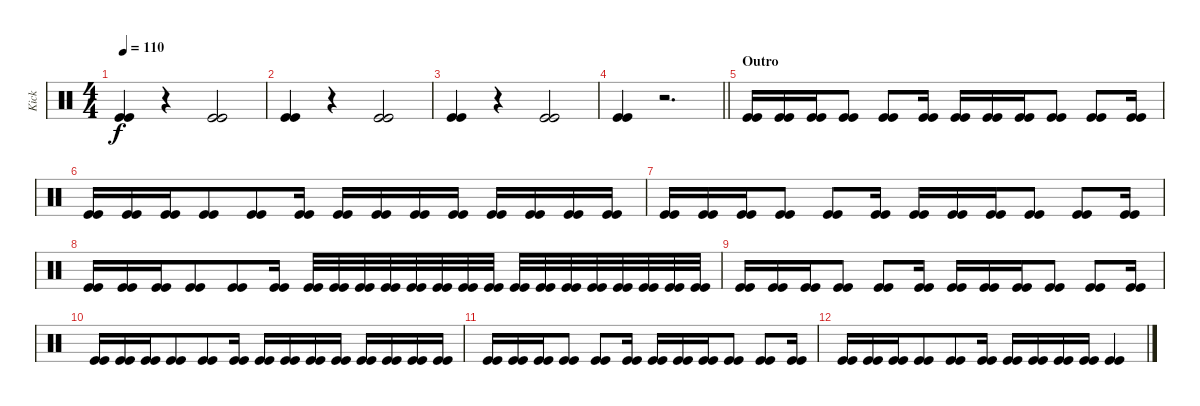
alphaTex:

\track ("Kick" "Kick") {instrument percussion}
\staff {score}
\articulation defaults
\ts (4 4)
\tempo 110
\clef neutral
\ks c
("Kick (hit)" "Kick (hit)").4{dy f} r.4 ("Kick (hit)" "Kick (hit)").2 |
("Kick (hit)" "Kick (hit)").4 r.4 ("Kick (hit)" "Kick (hit)").2 |
("Kick (hit)" "Kick (hit)").4 r.4 ("Kick (hit)" "Kick (hit)").2 |
\barLineRight lightlight
("Kick (hit)" "Kick (hit)").4 r.2{d} |
\section ("" "Outro")
("Kick (hit)" "Kick (hit)").16{beam merge} ("Kick (hit)" "Kick (hit)").16 ("Kick (hit)" "Kick (hit)").16 ("Kick (hit)" "Kick (hit)").8 ("Kick (hit)" "Kick (hit)").8 ("Kick (hit)" "Kick (hit)").16 ("Kick (hit)" "Kick (hit)").16 ("Kick (hit)" "Kick (hit)").16 ("Kick (hit)" "Kick (hit)").16 ("Kick (hit)" "Kick (hit)").8 ("Kick (hit)" "Kick (hit)").8 ("Kick (hit)" "Kick (hit)").16 |
("Kick (hit)" "Kick (hit)").16 ("Kick (hit)" "Kick (hit)").16 ("Kick (hit)" "Kick (hit)").16 ("Kick (hit)" "Kick (hit)").8{beam merge} ("Kick (hit)" "Kick (hit)").8{beam merge} ("Kick (hit)" "Kick (hit)").16 ("Kick (hit)" "Kick (hit)").16 ("Kick (hit)" "Kick (hit)").16 ("Kick (hit)" "Kick (hit)").16 ("Kick (hit)" "Kick (hit)").16 ("Kick (hit)" "Kick (hit)").16 ("Kick (hit)" "Kick (hit)").16 ("Kick (hit)" "Kick (hit)").16{beam merge} ("Kick (hit)" "Kick (hit)").16 |
("Kick (hit)" "Kick (hit)").16{beam merge} ("Kick (hit)" "Kick (hit)").16 ("Kick (hit)" "Kick (hit)").16 ("Kick (hit)" "Kick (hit)").8 ("Kick (hit)" "Kick (hit)").8 ("Kick (hit)" "Kick (hit)").16 ("Kick (hit)" "Kick (hit)").16 ("Kick (hit)" "Kick (hit)").16 ("Kick (hit)" "Kick (hit)").16 ("Kick (hit)" "Kick (hit)").8 ("Kick (hit)" "Kick (hit)").8 ("Kick (hit)" "Kick (hit)").16 |
("Kick (hit)" "Kick (hit)").16 ("Kick (hit)" "Kick (hit)").16 ("Kick (hit)" "Kick (hit)").16 ("Kick (hit)" "Kick (hit)").8{beam merge} ("Kick (hit)" "Kick (hit)").8{beam merge} ("Kick (hit)" "Kick (hit)").16 ("Kick (hit)" "Kick (hit)").32 ("Kick (hit)" "Kick (hit)").32 ("Kick (hit)" "Kick (hit)").32 ("Kick (hit)" "Kick (hit)").32 ("Kick (hit)" "Kick (hit)").32 ("Kick (hit)" "Kick (hit)").32 ("Kick (hit)" "Kick (hit)").32{beam merge} ("Kick (hit)" "Kick (hit)").32 ("Kick (hit)" "Kick (hit)").32 ("Kick (hit)" "Kick (hit)").32 ("Kick (hit)" "Kick (hit)").32 ("Kick (hit)" "Kick (hit)").32 ("Kick (hit)" "Kick (hit)").32 ("Kick (hit)" "Kick (hit)").32 ("Kick (hit)" "Kick (hit)").32 ("Kick (hit)" "Kick (hit)").32 |
("Kick (hit)" "Kick (hit)").16{beam merge} ("Kick (hit)" "Kick (hit)").16 ("Kick (hit)" "Kick (hit)").16 ("Kick (hit)" "Kick (hit)").8 ("Kick (hit)" "Kick (hit)").8 ("Kick (hit)" "Kick (hit)").16 ("Kick (hit)" "Kick (hit)").16 ("Kick (hit)" "Kick (hit)").16 ("Kick (hit)" "Kick (hit)").16 ("Kick (hit)" "Kick (hit)").8 ("Kick (hit)" "Kick (hit)").8 ("Kick (hit)" "Kick (hit)").16 |
("Kick (hit)" "Kick (hit)").16 ("Kick (hit)" "Kick (hit)").16 ("Kick (hit)" "Kick (hit)").16 ("Kick (hit)" "Kick (hit)").8{beam merge} ("Kick (hit)" "Kick (hit)").8{beam merge} ("Kick (hit)" "Kick (hit)").16 ("Kick (hit)" "Kick (hit)").16 ("Kick (hit)" "Kick (hit)").16 ("Kick (hit)" "Kick (hit)").16 ("Kick (hit)" "Kick (hit)").16 ("Kick (hit)" "Kick (hit)").16 ("Kick (hit)" "Kick (hit)").16 ("Kick (hit)" "Kick (hit)").16{beam merge} ("Kick (hit)" "Kick (hit)").16 |
("Kick (hit)" "Kick (hit)").16{beam merge} ("Kick (hit)" "Kick (hit)").16 ("Kick (hit)" "Kick (hit)").16 ("Kick (hit)" "Kick (hit)").8 ("Kick (hit)" "Kick (hit)").8 ("Kick (hit)" "Kick (hit)").16 ("Kick (hit)" "Kick (hit)").16 ("Kick (hit)" "Kick (hit)").16 ("Kick (hit)" "Kick (hit)").16 ("Kick (hit)" "Kick (hit)").8 ("Kick (hit)" "Kick (hit)").8 ("Kick (hit)" "Kick (hit)").16 |
("Kick (hit)" "Kick (hit)").16 ("Kick (hit)" "Kick (hit)").16 ("Kick (hit)" "Kick (hit)").16 ("Kick (hit)" "Kick (hit)").8{beam merge} ("Kick (hit)" "Kick (hit)").8{beam merge} ("Kick (hit)" "Kick (hit)").16 ("Kick (hit)" "Kick (hit)").16 ("Kick (hit)" "Kick (hit)").16 ("Kick (hit)" "Kick (hit)").16 ("Kick (hit)" "Kick (hit)").16 ("Kick (hit)" "Kick (hit)").4
